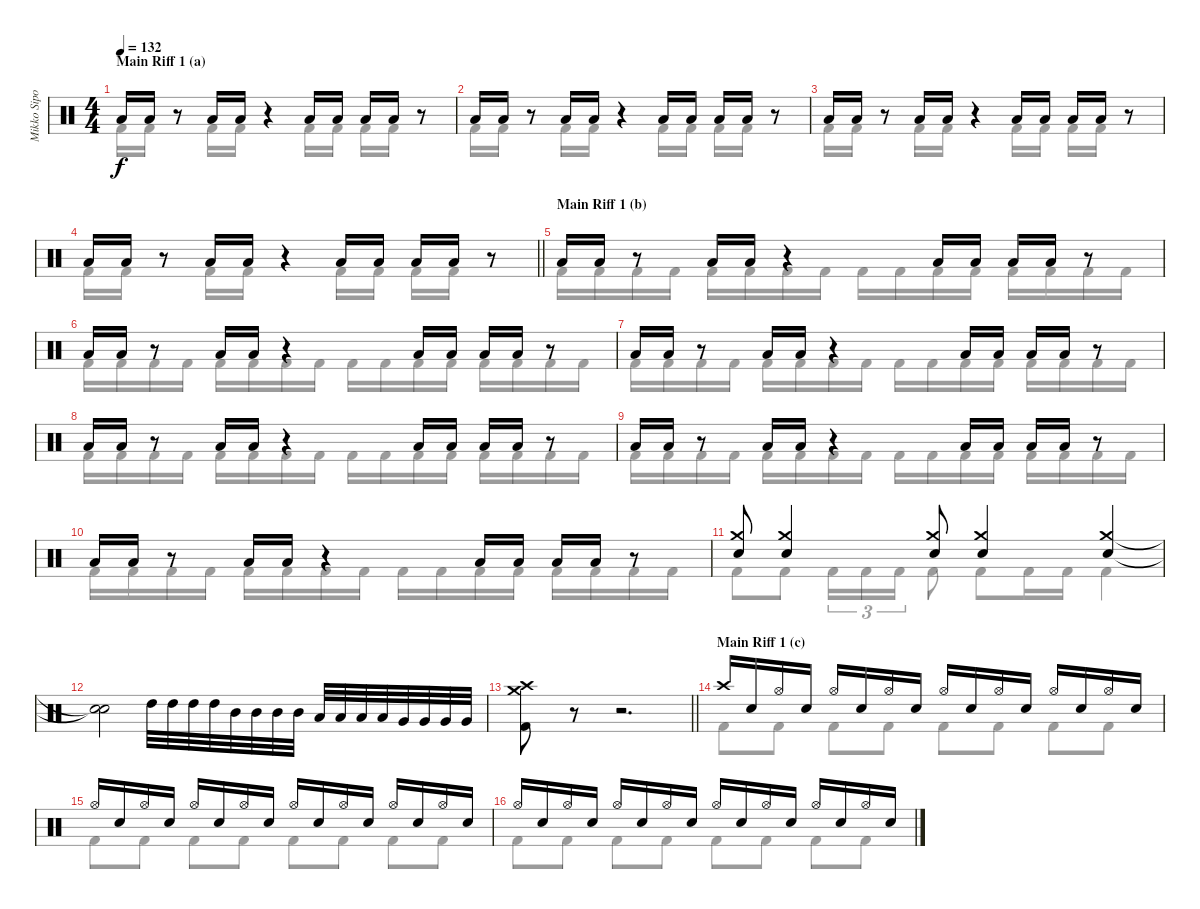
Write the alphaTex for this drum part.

\track ("Mikko Sipola (drums)" "Mikko Sipo") {instrument percussion}
\staff {score}
\articulation defaults
\voice
\ts (4 4)
\section ("" "Main Riff 1 (a)")
\tempo 132
\clef neutral
\ks c "Low Tom (hit)".16{dy f} "Low Tom (hit)".16
r.8 "Low Tom (hit)".16 "Low Tom (hit)".16 r.4 "Low Tom (hit)".16 "Low Tom (hit)".16 "Low Tom (hit)".16 "Low Tom (hit)".16 r.8 |
"Low Tom (hit)".16 "Low Tom (hit)".16 r.8 "Low Tom (hit)".16 "Low Tom (hit)".16 r.4 "Low Tom (hit)".16 "Low Tom (hit)".16 "Low Tom (hit)".16 "Low Tom (hit)".16 r.8 |
"Low Tom (hit)".16 "Low Tom (hit)".16 r.8 "Low Tom (hit)".16 "Low Tom (hit)".16 r.4 "Low Tom (hit)".16 "Low Tom (hit)".16 "Low Tom (hit)".16 "Low Tom (hit)".16 r.8 |
\barLineRight lightlight "Low Tom (hit)".16 "Low Tom (hit)".16
r.8 "Low Tom (hit)".16 "Low Tom (hit)".16 r.4 "Low Tom (hit)".16 "Low Tom (hit)".16 "Low Tom (hit)".16 "Low Tom (hit)".16 r.8 |
\section ("" "Main Riff 1 (b)")
"Low Tom (hit)".16 "Low Tom (hit)".16 r.8 "Low Tom (hit)".16 "Low Tom (hit)".16 r.4 "Low Tom (hit)".16 "Low Tom (hit)".16 "Low Tom (hit)".16 "Low Tom (hit)".16 r.8 |
"Low Tom (hit)".16 "Low Tom (hit)".16 r.8 "Low Tom (hit)".16 "Low Tom (hit)".16 r.4 "Low Tom (hit)".16 "Low Tom (hit)".16 "Low Tom (hit)".16 "Low Tom (hit)".16 r.8 |
"Low Tom (hit)".16 "Low Tom (hit)".16 r.8 "Low Tom (hit)".16 "Low Tom (hit)".16 r.4 "Low Tom (hit)".16 "Low Tom (hit)".16 "Low Tom (hit)".16 "Low Tom (hit)".16 r.8 |
"Low Tom (hit)".16 "Low Tom (hit)".16 r.8 "Low Tom (hit)".16 "Low Tom (hit)".16 r.4 "Low Tom (hit)".16 "Low Tom (hit)".16 "Low Tom (hit)".16 "Low Tom (hit)".16 r.8 |
"Low Tom (hit)".16 "Low Tom (hit)".16 r.8 "Low Tom (hit)".16 "Low Tom (hit)".16 r.4 "Low Tom (hit)".16 "Low Tom (hit)".16 "Low Tom (hit)".16 "Low Tom (hit)".16 r.8 |
"Low Tom (hit)".16 "Low Tom (hit)".16 r.8 "Low Tom (hit)".16 "Low Tom (hit)".16 r.4 "Low Tom (hit)".16 "Low Tom (hit)".16 "Low Tom (hit)".16 "Low Tom (hit)".16 r.8 |
("Crash medium (hit)" "Electric Snare (hit)").8 ("Crash medium (hit)" "Electric Snare (hit)").4 ("Crash medium (hit)" "Electric Snare (hit)").8 ("Crash medium (hit)" "Electric Snare (hit)").4 ("Crash medium (hit)" "Electric Snare (hit)").4 |
("Snare (hit)"{t} "Snare (hit)"{t}).2 "High Tom (hit)".32 "High Tom (hit)".32 "High Tom (hit)".32 "High Tom (hit)".32 "Mid Tom (hit)".32 "Mid Tom (hit)".32 "Mid Tom (hit)".32 "Mid Tom (hit)".32 "Low Tom (hit)".32 "Low Tom (hit)".32 "Low Tom (hit)".32 "Low Tom (hit)".32 "Very Low Tom (hit)".32 "Very Low Tom (hit)".32 "Very Low Tom (hit)".32 "Very Low Tom (hit)".32 |
\barLineRight lightlight
("Crash high (hit)" "Crash medium (hit)" "Kick (hit) 2").8 r.8 r.2{d} |
\section ("" "Main Riff 1 (c)")
"Crash high (hit)".16 "Electric Snare (hit)".16 "Hi-Hat (open)".16 "Electric Snare (hit)".16 "Hi-Hat (open)".16 "Electric Snare (hit)".16 "Hi-Hat (open)".16 "Electric Snare (hit)".16 "Hi-Hat (open)".16 "Electric Snare (hit)".16 "Hi-Hat (open)".16 "Electric Snare (hit)".16 "Hi-Hat (open)".16 "Electric Snare (hit)".16 "Hi-Hat (open)".16 "Electric Snare (hit)".16 |
"Hi-Hat (open)".16 "Electric Snare (hit)".16 "Hi-Hat (open)".16 "Electric Snare (hit)".16 "Hi-Hat (open)".16 "Electric Snare (hit)".16 "Hi-Hat (open)".16 "Electric Snare (hit)".16 "Hi-Hat (open)".16 "Electric Snare (hit)".16 "Hi-Hat (open)".16 "Electric Snare (hit)".16 "Hi-Hat (open)".16 "Electric Snare (hit)".16 "Hi-Hat (open)".16 "Electric Snare (hit)".16 |
"Hi-Hat (open)".16 "Electric Snare (hit)".16 "Hi-Hat (open)".16 "Electric Snare (hit)".16 "Hi-Hat (open)".16 "Electric Snare (hit)".16 "Hi-Hat (open)".16 "Electric Snare (hit)".16 "Hi-Hat (open)".16 "Electric Snare (hit)".16 "Hi-Hat (open)".16 "Electric Snare (hit)".16 "Hi-Hat (open)".16 "Electric Snare (hit)".16 "Hi-Hat (open)".16 "Electric Snare (hit)".16
\voice
\clef neutral
\ottava regular
\simile none
\ks c "Kick (hit) 2".16{dy f} "Kick (hit) 2".16
r.8 "Kick (hit) 2".16 "Kick (hit) 2".16 r.4 "Kick (hit) 2".16 "Kick (hit) 2".16 "Kick (hit) 2".16 "Kick (hit) 2".16 r.8 |
"Kick (hit) 2".16 "Kick (hit) 2".16 r.8 "Kick (hit) 2".16 "Kick (hit) 2".16 r.4 "Kick (hit) 2".16 "Kick (hit) 2".16 "Kick (hit) 2".16 "Kick (hit) 2".16 r.8 |
"Kick (hit) 2".16 "Kick (hit) 2".16 r.8 "Kick (hit) 2".16 "Kick (hit) 2".16 r.4 "Kick (hit) 2".16 "Kick (hit) 2".16 "Kick (hit) 2".16 "Kick (hit) 2".16 r.8 |
\barLineRight lightlight "Kick (hit) 2".16 "Kick (hit) 2".16
r.8 "Kick (hit) 2".16 "Kick (hit) 2".16 r.4 "Kick (hit) 2".16 "Kick (hit) 2".16 "Kick (hit) 2".16 "Kick (hit) 2".16 r.8 |
"Kick (hit) 2".16 "Kick (hit) 2".16 "Kick (hit) 2".16 "Kick (hit) 2".16 "Kick (hit) 2".16 "Kick (hit) 2".16 "Kick (hit) 2".16 "Kick (hit) 2".16 "Kick (hit) 2".16 "Kick (hit) 2".16 "Kick (hit) 2".16 "Kick (hit) 2".16 "Kick (hit) 2".16 "Kick (hit) 2".16 "Kick (hit) 2".16 "Kick (hit) 2".16 |
"Kick (hit) 2".16 "Kick (hit) 2".16 "Kick (hit) 2".16 "Kick (hit) 2".16 "Kick (hit) 2".16 "Kick (hit) 2".16 "Kick (hit) 2".16 "Kick (hit) 2".16 "Kick (hit) 2".16 "Kick (hit) 2".16 "Kick (hit) 2".16 "Kick (hit) 2".16 "Kick (hit) 2".16 "Kick (hit) 2".16 "Kick (hit) 2".16 "Kick (hit) 2".16 |
"Kick (hit) 2".16 "Kick (hit) 2".16 "Kick (hit) 2".16 "Kick (hit) 2".16 "Kick (hit) 2".16 "Kick (hit) 2".16 "Kick (hit) 2".16 "Kick (hit) 2".16 "Kick (hit) 2".16 "Kick (hit) 2".16 "Kick (hit) 2".16 "Kick (hit) 2".16 "Kick (hit) 2".16 "Kick (hit) 2".16 "Kick (hit) 2".16 "Kick (hit) 2".16 |
"Kick (hit) 2".16 "Kick (hit) 2".16 "Kick (hit) 2".16 "Kick (hit) 2".16 "Kick (hit) 2".16 "Kick (hit) 2".16 "Kick (hit) 2".16 "Kick (hit) 2".16 "Kick (hit) 2".16 "Kick (hit) 2".16 "Kick (hit) 2".16 "Kick (hit) 2".16 "Kick (hit) 2".16 "Kick (hit) 2".16 "Kick (hit) 2".16 "Kick (hit) 2".16 |
"Kick (hit) 2".16 "Kick (hit) 2".16 "Kick (hit) 2".16 "Kick (hit) 2".16 "Kick (hit) 2".16 "Kick (hit) 2".16 "Kick (hit) 2".16 "Kick (hit) 2".16 "Kick (hit) 2".16 "Kick (hit) 2".16 "Kick (hit) 2".16 "Kick (hit) 2".16 "Kick (hit) 2".16 "Kick (hit) 2".16 "Kick (hit) 2".16 "Kick (hit) 2".16 |
"Kick (hit) 2".16 "Kick (hit) 2".16 "Kick (hit) 2".16 "Kick (hit) 2".16 "Kick (hit) 2".16 "Kick (hit) 2".16 "Kick (hit) 2".16 "Kick (hit) 2".16 "Kick (hit) 2".16 "Kick (hit) 2".16 "Kick (hit) 2".16 "Kick (hit) 2".16 "Kick (hit) 2".16 "Kick (hit) 2".16 "Kick (hit) 2".16 "Kick (hit) 2".16 |
"Kick (hit) 2".8 "Kick (hit) 2".8 "Kick (hit) 2".16{tu (3 2)} "Kick (hit) 2".16{tu (3 2)} "Kick (hit) 2".16{tu (3 2)} "Kick (hit) 2".8 "Kick (hit) 2".8 "Kick (hit) 2".16 "Kick (hit) 2".16 "Kick (hit) 2".4 |
|
\barLineRight lightlight
|
"Kick (hit) 2".8 "Kick (hit) 2".8 "Kick (hit) 2".8 "Kick (hit) 2".8 "Kick (hit) 2".8 "Kick (hit) 2".8 "Kick (hit) 2".8 "Kick (hit) 2".8 |
"Kick (hit) 2".8 "Kick (hit) 2".8 "Kick (hit) 2".8 "Kick (hit) 2".8 "Kick (hit) 2".8 "Kick (hit) 2".8 "Kick (hit) 2".8 "Kick (hit) 2".8 |
"Kick (hit) 2".8 "Kick (hit) 2".8 "Kick (hit) 2".8 "Kick (hit) 2".8 "Kick (hit) 2".8 "Kick (hit) 2".8 "Kick (hit) 2".8 "Kick (hit) 2".8
